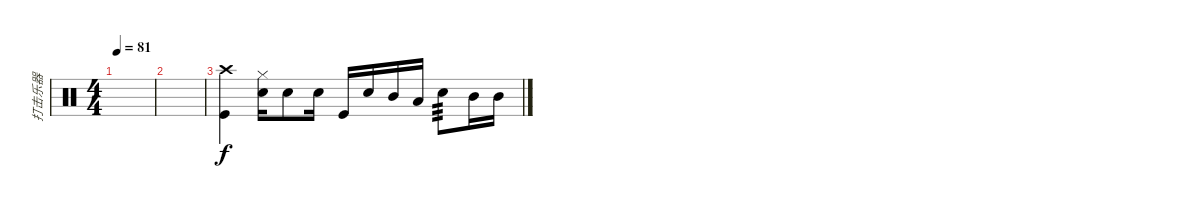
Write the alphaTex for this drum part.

\track ("打击乐器" "打击乐器") {instrument percussion}
\staff {score}
\articulation defaults
\ts (4 4)
\tempo 81
\clef neutral
\ks c
|
|
("Crash high (hit)" "Kick (hit)").4 ("Hi-Hat (closed)" "Electric Snare (hit)").16 "Electric Snare (hit)".8 "Electric Snare (hit)".16 "Kick (hit)".16 "Electric Snare (hit)".16 "Mid Tom (hit)".16 "Low Tom (hit)".16 "Electric Snare (hit)".8{tp 3} "Mid Tom (hit)".16 "Mid Tom (hit)".16
